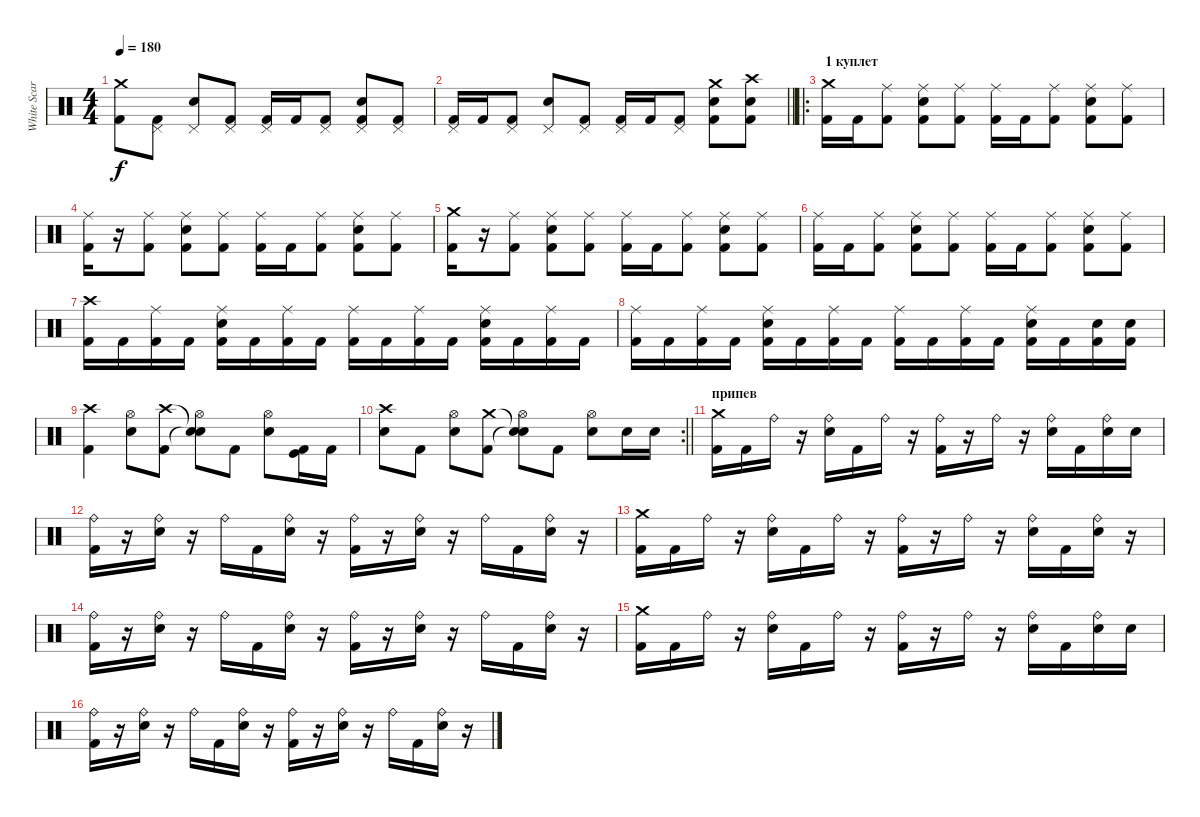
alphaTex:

\track ("White Scar" "White Scar") {instrument percussion}
\staff {score}
\articulation defaults
\ts (4 4)
\tempo 180
\clef neutral
\ks c
("Crash medium (hit)" "Kick (hit) 2").8{dy f} ("Pedal Hi-Hat (hit)" "Kick (hit) 2").8 ("Pedal Hi-Hat (hit)" "Snare (hit) 2").8 ("Pedal Hi-Hat (hit)" "Kick (hit) 2").8 ("Pedal Hi-Hat (hit)" "Kick (hit) 2").16 "Kick (hit) 2".16 ("Pedal Hi-Hat (hit)" "Kick (hit) 2").8 ("Pedal Hi-Hat (hit)" "Snare (hit) 2" "Kick (hit) 2").8 ("Pedal Hi-Hat (hit)" "Kick (hit) 2").8 |
\barLineRight lightlight
("Pedal Hi-Hat (hit)" "Kick (hit) 2").16 "Kick (hit) 2".16 ("Pedal Hi-Hat (hit)" "Kick (hit) 2").8 ("Pedal Hi-Hat (hit)" "Snare (hit) 2").8 ("Pedal Hi-Hat (hit)" "Kick (hit) 2").8 ("Pedal Hi-Hat (hit)" "Kick (hit) 2").16 "Kick (hit) 2".16 ("Pedal Hi-Hat (hit)" "Kick (hit) 2").8 ("Crash medium (hit)" "Snare (hit) 2" "Kick (hit) 2").8 ("Crash high (hit)" "Snare (hit) 2" "Kick (hit) 2").8 |
\ro
\section ("" " 1 куплет")
("Crash medium (hit)" "Kick (hit) 2").16 "Kick (hit) 2".16 ("Ride (middle)" "Kick (hit) 2").8 ("Snare (hit) 2" "Ride (middle)" "Kick (hit) 2").8 ("Ride (middle)" "Kick (hit) 2").8 ("Ride (middle)" "Kick (hit) 2").16 "Kick (hit) 2".16 ("Ride (middle)" "Kick (hit) 2").8 ("Snare (hit) 2" "Ride (middle)" "Kick (hit) 2").8 ("Ride (middle)" "Kick (hit) 2").8 |
("Ride (middle)" "Kick (hit) 2").16 r.16 ("Ride (middle)" "Kick (hit) 2").8 ("Snare (hit) 2" "Ride (middle)" "Kick (hit) 2").8 ("Ride (middle)" "Kick (hit) 2").8 ("Ride (middle)" "Kick (hit) 2").16 "Kick (hit) 2".16 ("Ride (middle)" "Kick (hit) 2").8 ("Snare (hit) 2" "Ride (middle)" "Kick (hit) 2").8 ("Ride (middle)" "Kick (hit) 2").8 |
("Crash medium (hit)" "Kick (hit) 2").16 r.16 ("Ride (middle)" "Kick (hit) 2").8 ("Snare (hit) 2" "Ride (middle)" "Kick (hit) 2").8 ("Ride (middle)" "Kick (hit) 2").8 ("Ride (middle)" "Kick (hit) 2").16 "Kick (hit) 2".16 ("Ride (middle)" "Kick (hit) 2").8 ("Snare (hit) 2" "Ride (middle)" "Kick (hit) 2").8 ("Ride (middle)" "Kick (hit) 2").8 |
("Ride (middle)" "Kick (hit) 2").16 "Kick (hit) 2".16 ("Ride (middle)" "Kick (hit) 2").8 ("Snare (hit) 2" "Ride (middle)" "Kick (hit) 2").8 ("Ride (middle)" "Kick (hit) 2").8 ("Ride (middle)" "Kick (hit) 2").16 "Kick (hit) 2".16 ("Ride (middle)" "Kick (hit) 2").8 ("Snare (hit) 2" "Ride (middle)" "Kick (hit) 2").8 ("Ride (middle)" "Kick (hit) 2").8 |
("Crash high (hit)" "Kick (hit) 2").16 "Kick (hit) 2".16 ("Ride (middle)" "Kick (hit) 2").16 "Kick (hit) 2".16 ("Snare (hit) 2" "Ride (middle)" "Kick (hit) 2").16 "Kick (hit) 2".16 ("Ride (middle)" "Kick (hit) 2").16 "Kick (hit) 2".16 ("Ride (middle)" "Kick (hit) 2").16 "Kick (hit) 2".16 ("Ride (middle)" "Kick (hit) 2").16 "Kick (hit) 2".16 ("Snare (hit) 2" "Ride (middle)" "Kick (hit) 2").16 "Kick (hit) 2".16 ("Ride (middle)" "Kick (hit) 2").16 "Kick (hit) 2".16 |
("Ride (middle)" "Kick (hit) 2").16 "Kick (hit) 2".16 ("Ride (middle)" "Kick (hit) 2").16 "Kick (hit) 2".16 ("Snare (hit) 2" "Ride (middle)" "Kick (hit) 2").16 "Kick (hit) 2".16 ("Ride (middle)" "Kick (hit) 2").16 "Kick (hit) 2".16 ("Ride (middle)" "Kick (hit) 2").16 "Kick (hit) 2".16 ("Ride (middle)" "Kick (hit) 2").16 "Kick (hit) 2".16 ("Snare (hit) 2" "Ride (middle)" "Kick (hit) 2").16 "Kick (hit) 2".16 ("Snare (hit) 2" "Kick (hit) 2").16 ("Snare (hit) 2" "Kick (hit) 2").16 |
("Kick (hit) 2" "Crash high (hit)").4 ("Snare (hit) 2" "Hi-Hat (open)").8 ("Kick (hit) 2" "Crash high (hit)").8 ("Snare (hit)"{t} "Snare (hit)"{t} "Hi-Hat (open)").8 "Kick (hit) 2".8 ("Snare (hit) 2" "Hi-Hat (open)").8 ("Kick (hit)" "Kick (hit) 2").16 "Kick (hit) 2".16 |
\rc 2
\barLineRight lightlight
("Snare (hit) 2" "Crash high (hit)").8 "Kick (hit) 2".8 ("Snare (hit) 2" "Hi-Hat (open)").8 ("Kick (hit) 2" "Crash medium (hit)").8 ("Snare (hit)"{t} "Snare (hit)"{t} "Hi-Hat (open)").8 "Kick (hit) 2".8 ("Snare (hit) 2" "Hi-Hat (open)").8 "Snare (hit) 2".16 "Snare (hit) 2".16 |
\section ("" "припев")
("Crash medium (hit)" "Kick (hit) 2").16 "Kick (hit) 2".16 "Ride (bell)".16 r.16 ("Ride (bell)" "Snare (hit) 2").16 "Kick (hit) 2".16 "Ride (bell)".16 r.16 ("Ride (bell)" "Kick (hit) 2").16 r.16 "Ride (bell)".16 r.16 ("Ride (bell)" "Snare (hit) 2").16 "Kick (hit) 2".16 ("Ride (bell)" "Snare (hit) 2").16 "Snare (hit) 2".16 |
("Ride (bell)" "Kick (hit) 2").16 r.16 ("Ride (bell)" "Snare (hit) 2").16 r.16 "Ride (bell)".16 "Kick (hit) 2".16 ("Ride (bell)" "Snare (hit) 2").16 r.16 ("Ride (bell)" "Kick (hit) 2").16 r.16 ("Ride (bell)" "Snare (hit) 2").16 r.16 "Ride (bell)".16 "Kick (hit) 2".16 ("Ride (bell)" "Snare (hit) 2").16 r.16 |
("Crash medium (hit)" "Kick (hit) 2").16 "Kick (hit) 2".16 "Ride (bell)".16 r.16 ("Ride (bell)" "Snare (hit) 2").16 "Kick (hit) 2".16 "Ride (bell)".16 r.16 ("Ride (bell)" "Kick (hit) 2").16 r.16 "Ride (bell)".16 r.16 ("Ride (bell)" "Snare (hit) 2").16 "Kick (hit) 2".16 ("Ride (bell)" "Snare (hit) 2").16 r.16 |
("Ride (bell)" "Kick (hit) 2").16 r.16 ("Ride (bell)" "Snare (hit) 2").16 r.16 "Ride (bell)".16 "Kick (hit) 2".16 ("Ride (bell)" "Snare (hit) 2").16 r.16 ("Ride (bell)" "Kick (hit) 2").16 r.16 ("Ride (bell)" "Snare (hit) 2").16 r.16 "Ride (bell)".16 "Kick (hit) 2".16 ("Ride (bell)" "Snare (hit) 2").16 r.16 |
("Crash medium (hit)" "Kick (hit) 2").16 "Kick (hit) 2".16 "Ride (bell)".16 r.16 ("Ride (bell)" "Snare (hit) 2").16 "Kick (hit) 2".16 "Ride (bell)".16 r.16 ("Ride (bell)" "Kick (hit) 2").16 r.16 "Ride (bell)".16 r.16 ("Ride (bell)" "Snare (hit) 2").16 "Kick (hit) 2".16 ("Ride (bell)" "Snare (hit) 2").16 "Snare (hit) 2".16 |
("Ride (bell)" "Kick (hit) 2").16 r.16 ("Ride (bell)" "Snare (hit) 2").16 r.16 "Ride (bell)".16 "Kick (hit) 2".16 ("Ride (bell)" "Snare (hit) 2").16 r.16 ("Ride (bell)" "Kick (hit) 2").16 r.16 ("Ride (bell)" "Snare (hit) 2").16 r.16 "Ride (bell)".16 "Kick (hit) 2".16 ("Ride (bell)" "Snare (hit) 2").16 r.16
